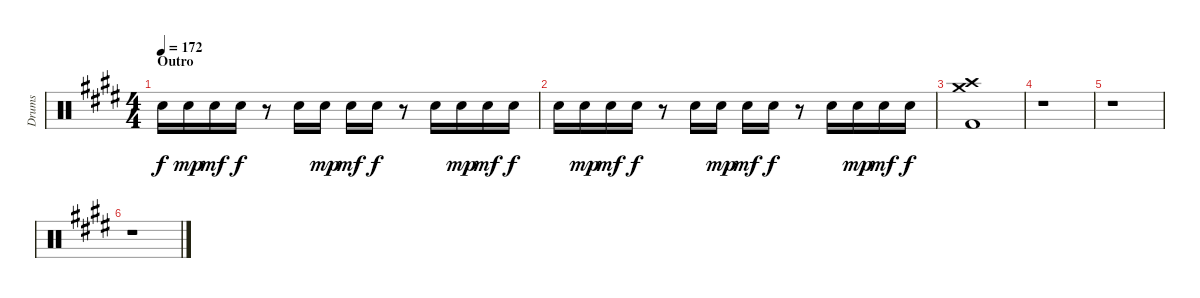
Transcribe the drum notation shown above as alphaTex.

\track ("Drums" "Drums") {instrument percussion}
\staff {score}
\articulation defaults
\ts (4 4)
\section ("" "Outro")
\tempo 172
\clef neutral
\ks e "Snare (hit) 2".16{dy f} "Snare (hit) 2".16{dy mp} "Snare (hit) 2".16{dy mf} "Snare (hit) 2".16{dy f}
r.8 "Snare (hit) 2".16 "Snare (hit) 2".16{dy mp} "Snare (hit) 2".16{dy mf} "Snare (hit) 2".16{dy f} r.8 "Snare (hit) 2".16 "Snare (hit) 2".16{dy mp} "Snare (hit) 2".16{dy mf} "Snare (hit) 2".16{dy f} |
"Snare (hit) 2".16 "Snare (hit) 2".16{dy mp} "Snare (hit) 2".16{dy mf} "Snare (hit) 2".16{dy f} r.8 "Snare (hit) 2".16 "Snare (hit) 2".16{dy mp} "Snare (hit) 2".16{dy mf} "Snare (hit) 2".16{dy f} r.8 "Snare (hit) 2".16 "Snare (hit) 2".16{dy mp} "Snare (hit) 2".16{dy mf} "Snare (hit) 2".16{dy f} |
("Crash high (hit)" "Crash medium (hit)" "Kick (hit) 2").1 |
r.1 |
r.1 |
r.1
